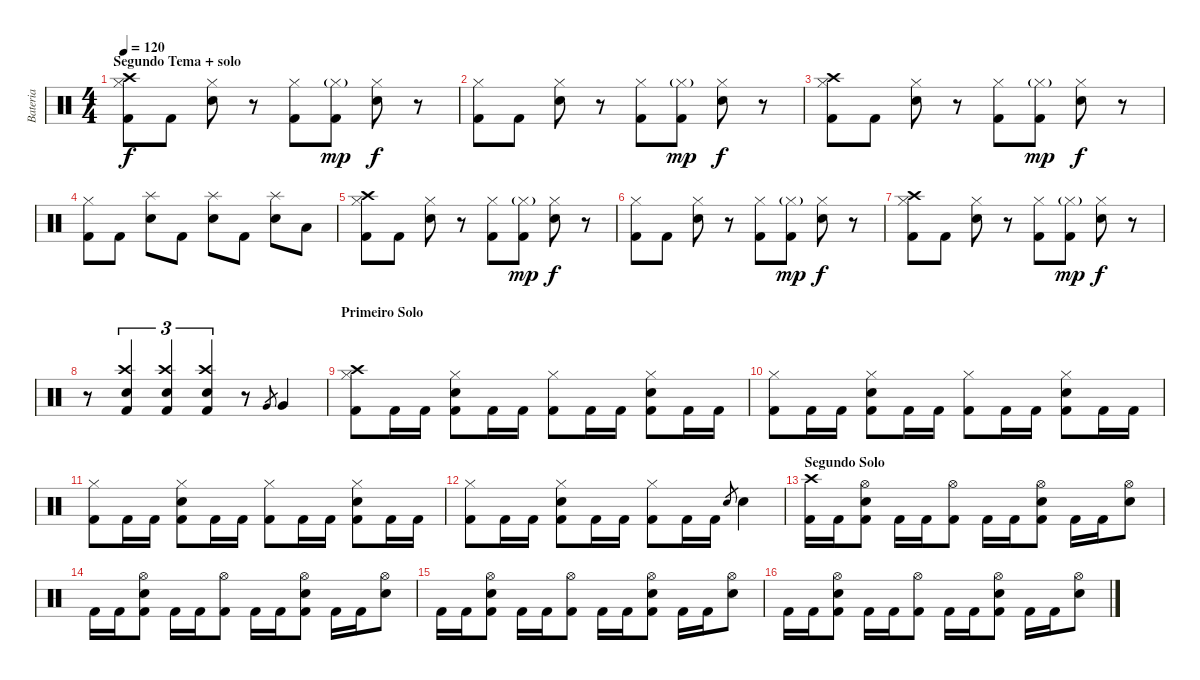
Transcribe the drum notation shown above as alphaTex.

\track ("Bateria" "Bateria") {instrument percussion}
\staff {score}
\articulation defaults
\ts (4 4)
\section ("" "Segundo Tema + solo")
\tempo 120
\clef neutral
\ks c
("Hi-Hat (closed)" "Kick (hit) 2" "Crash high (hit)").8{dy f} "Kick (hit) 2".8 ("Hi-Hat (closed)" "Snare (hit) 2").8 r.8 ("Hi-Hat (closed)" "Kick (hit) 2").8 ("Hi-Hat (closed)"{g} "Kick (hit) 2").8{dy mp} ("Hi-Hat (closed)" "Snare (hit) 2").8{dy f} r.8 |
("Hi-Hat (closed)" "Kick (hit) 2").8 "Kick (hit) 2".8 ("Hi-Hat (closed)" "Snare (hit) 2").8 r.8 ("Hi-Hat (closed)" "Kick (hit) 2").8 ("Hi-Hat (closed)"{g} "Kick (hit) 2").8{dy mp} ("Hi-Hat (closed)" "Snare (hit) 2").8{dy f} r.8 |
("Hi-Hat (closed)" "Kick (hit) 2" "Crash high (hit)").8 "Kick (hit) 2".8 ("Hi-Hat (closed)" "Snare (hit) 2").8 r.8 ("Hi-Hat (closed)" "Kick (hit) 2").8 ("Hi-Hat (closed)"{g} "Kick (hit) 2").8{dy mp} ("Hi-Hat (closed)" "Snare (hit) 2").8{dy f} r.8 |
("Hi-Hat (closed)" "Kick (hit) 2").8 "Kick (hit) 2".8 ("Snare (hit) 2" "Splash (hit)").8 "Kick (hit) 2".8 ("Snare (hit) 2" "Splash (hit)").8 "Kick (hit) 2".8 ("Snare (hit) 2" "Splash (hit)").8 "Low Tom (hit)".8 |
("Hi-Hat (closed)" "Kick (hit) 2" "Crash high (hit)").8 "Kick (hit) 2".8 ("Hi-Hat (closed)" "Snare (hit) 2").8 r.8 ("Hi-Hat (closed)" "Kick (hit) 2").8 ("Hi-Hat (closed)"{g} "Kick (hit) 2").8{dy mp} ("Hi-Hat (closed)" "Snare (hit) 2").8{dy f} r.8 |
("Hi-Hat (closed)" "Kick (hit) 2").8 "Kick (hit) 2".8 ("Hi-Hat (closed)" "Snare (hit) 2").8 r.8 ("Hi-Hat (closed)" "Kick (hit) 2").8 ("Hi-Hat (closed)"{g} "Kick (hit) 2").8{dy mp} ("Hi-Hat (closed)" "Snare (hit) 2").8{dy f} r.8 |
("Hi-Hat (closed)" "Kick (hit) 2" "Crash high (hit)").8 "Kick (hit) 2".8 ("Hi-Hat (closed)" "Snare (hit) 2").8 r.8 ("Hi-Hat (closed)" "Kick (hit) 2").8 ("Hi-Hat (closed)"{g} "Kick (hit) 2").8{dy mp} ("Hi-Hat (closed)" "Snare (hit) 2").8{dy f} r.8 |
r.8 ("Snare (hit) 2" "Kick (hit) 2" "Crash high (hit)").4{tu (3 2)} ("Snare (hit) 2" "Kick (hit) 2" "Crash high (hit)").4{tu (3 2)} ("Snare (hit) 2" "Kick (hit) 2" "Crash high (hit)").4{tu (3 2)} r.8 "Very Low Tom (hit)".8{gr} "Very Low Tom (hit)".4 |
\section ("" "Primeiro Solo")
("Hi-Hat (closed)" "Kick (hit) 2" "Crash high (hit)").8 "Kick (hit) 2".16 "Kick (hit) 2".16 ("Hi-Hat (closed)" "Snare (hit) 2" "Kick (hit) 2").8 "Kick (hit) 2".16 "Kick (hit) 2".16 ("Hi-Hat (closed)" "Kick (hit) 2").8 "Kick (hit) 2".16 "Kick (hit) 2".16 ("Hi-Hat (closed)" "Snare (hit) 2" "Kick (hit) 2").8 "Kick (hit) 2".16 "Kick (hit) 2".16 |
("Hi-Hat (closed)" "Kick (hit) 2").8 "Kick (hit) 2".16 "Kick (hit) 2".16 ("Hi-Hat (closed)" "Snare (hit) 2" "Kick (hit) 2").8 "Kick (hit) 2".16 "Kick (hit) 2".16 ("Hi-Hat (closed)" "Kick (hit) 2").8 "Kick (hit) 2".16 "Kick (hit) 2".16 ("Hi-Hat (closed)" "Snare (hit) 2" "Kick (hit) 2").8 "Kick (hit) 2".16 "Kick (hit) 2".16 |
("Hi-Hat (closed)" "Kick (hit) 2").8 "Kick (hit) 2".16 "Kick (hit) 2".16 ("Hi-Hat (closed)" "Snare (hit) 2" "Kick (hit) 2").8 "Kick (hit) 2".16 "Kick (hit) 2".16 ("Hi-Hat (closed)" "Kick (hit) 2").8 "Kick (hit) 2".16 "Kick (hit) 2".16 ("Hi-Hat (closed)" "Snare (hit) 2" "Kick (hit) 2").8 "Kick (hit) 2".16 "Kick (hit) 2".16 |
("Hi-Hat (closed)" "Kick (hit) 2").8 "Kick (hit) 2".16 "Kick (hit) 2".16 ("Hi-Hat (closed)" "Snare (hit) 2" "Kick (hit) 2").8 "Kick (hit) 2".16 "Kick (hit) 2".16 ("Hi-Hat (closed)" "Kick (hit) 2").8 "Kick (hit) 2".16 "Kick (hit) 2".16 "Snare (hit) 2".8{gr} "Snare (hit) 2".4 |
\section ("" "Segundo Solo")
("Kick (hit) 2" "Crash high (hit)").16 "Kick (hit) 2".16 ("Hi-Hat (open)" "Snare (hit) 2" "Kick (hit) 2").8 "Kick (hit) 2".16 "Kick (hit) 2".16 ("Hi-Hat (open)" "Kick (hit) 2").8 "Kick (hit) 2".16 "Kick (hit) 2".16 ("Hi-Hat (open)" "Snare (hit) 2" "Kick (hit) 2").8 "Kick (hit) 2".16 "Kick (hit) 2".16 ("Hi-Hat (open)" "Snare (hit) 2").8 |
"Kick (hit) 2".16 "Kick (hit) 2".16 ("Hi-Hat (open)" "Snare (hit) 2" "Kick (hit) 2").8 "Kick (hit) 2".16 "Kick (hit) 2".16 ("Hi-Hat (open)" "Kick (hit) 2").8 "Kick (hit) 2".16 "Kick (hit) 2".16 ("Hi-Hat (open)" "Snare (hit) 2" "Kick (hit) 2").8 "Kick (hit) 2".16 "Kick (hit) 2".16 ("Hi-Hat (open)" "Snare (hit) 2").8 |
"Kick (hit) 2".16 "Kick (hit) 2".16 ("Hi-Hat (open)" "Snare (hit) 2" "Kick (hit) 2").8 "Kick (hit) 2".16 "Kick (hit) 2".16 ("Hi-Hat (open)" "Kick (hit) 2").8 "Kick (hit) 2".16 "Kick (hit) 2".16 ("Hi-Hat (open)" "Snare (hit) 2" "Kick (hit) 2").8 "Kick (hit) 2".16 "Kick (hit) 2".16 ("Hi-Hat (open)" "Snare (hit) 2").8 |
"Kick (hit) 2".16 "Kick (hit) 2".16 ("Hi-Hat (open)" "Snare (hit) 2" "Kick (hit) 2").8 "Kick (hit) 2".16 "Kick (hit) 2".16 ("Hi-Hat (open)" "Kick (hit) 2").8 "Kick (hit) 2".16 "Kick (hit) 2".16 ("Hi-Hat (open)" "Snare (hit) 2" "Kick (hit) 2").8 "Kick (hit) 2".16 "Kick (hit) 2".16 ("Hi-Hat (open)" "Snare (hit) 2").8
